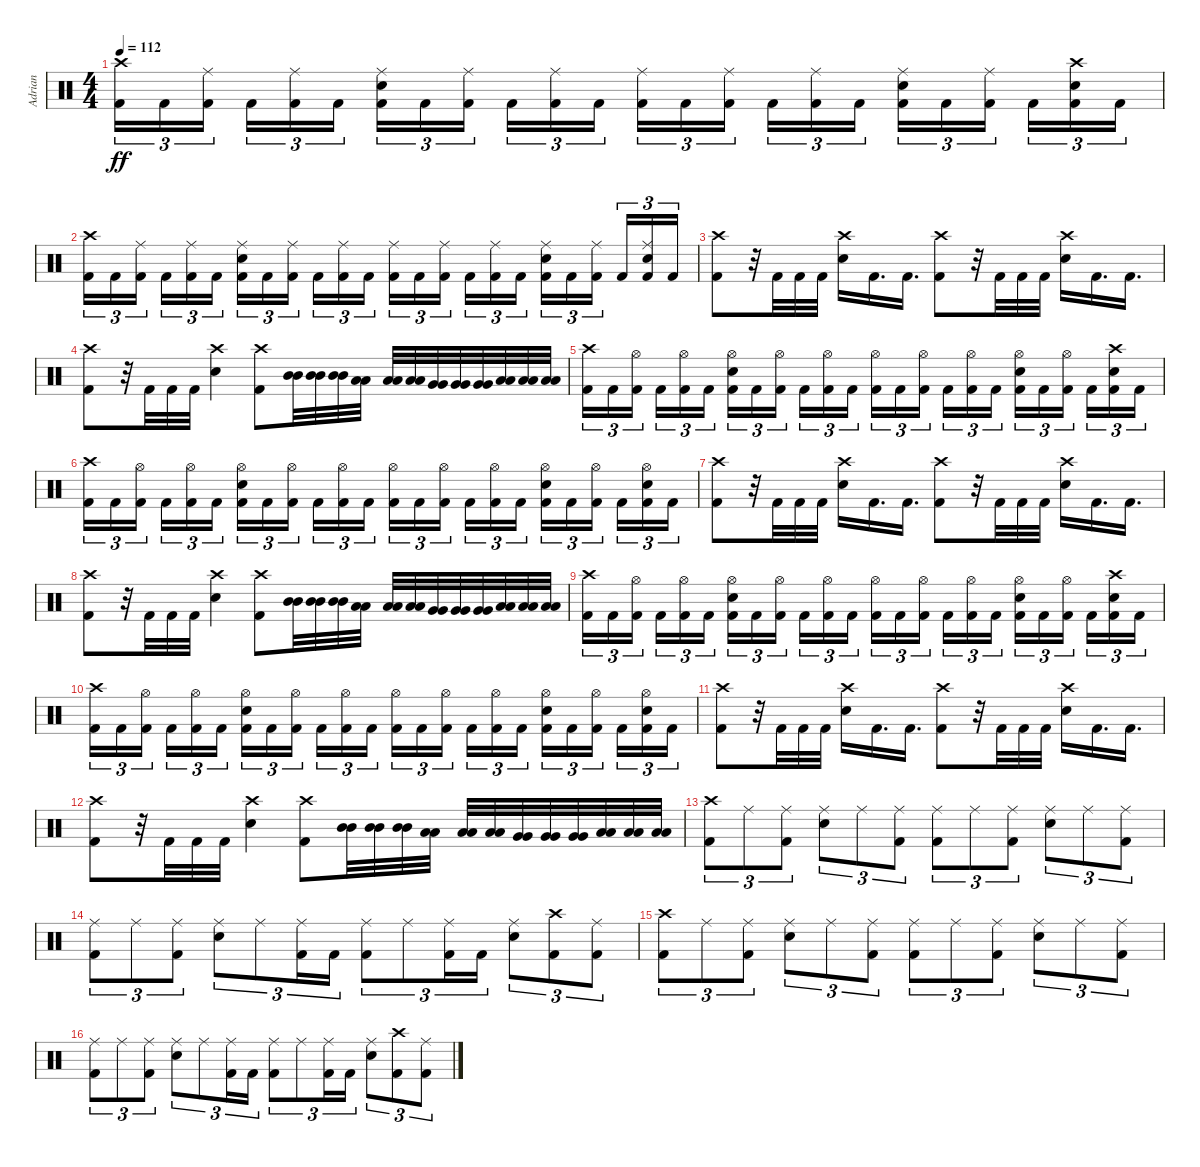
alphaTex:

\track ("Adrian" "Adrian") {instrument percussion}
\staff {score}
\articulation defaults
\ts (4 4)
\tempo 112
\clef neutral
\ks c
("Crash high (hit)" "Kick (hit) 2").16{tu (3 2) dy ff} "Kick (hit) 2".16{tu (3 2)} ("Ride (middle)" "Kick (hit) 2").16{tu (3 2) beam splitsecondary} "Kick (hit) 2".16{tu (3 2)} ("Ride (middle)" "Kick (hit) 2").16{tu (3 2)} "Kick (hit) 2".16{tu (3 2)} ("Ride (middle)" "Kick (hit) 2" "Electric Snare (hit)").16{tu (3 2)} "Kick (hit) 2".16{tu (3 2)} ("Ride (middle)" "Kick (hit) 2").16{tu (3 2) beam splitsecondary} "Kick (hit) 2".16{tu (3 2)} ("Ride (middle)" "Kick (hit) 2").16{tu (3 2)} "Kick (hit) 2".16{tu (3 2)} ("Ride (middle)" "Kick (hit) 2").16{tu (3 2)} "Kick (hit) 2".16{tu (3 2)} ("Ride (middle)" "Kick (hit) 2").16{tu (3 2) beam splitsecondary} "Kick (hit) 2".16{tu (3 2)} ("Ride (middle)" "Kick (hit) 2").16{tu (3 2)} "Kick (hit) 2".16{tu (3 2)} ("Ride (middle)" "Kick (hit) 2" "Electric Snare (hit)").16{tu (3 2)} "Kick (hit) 2".16{tu (3 2)} ("Ride (middle)" "Kick (hit) 2").16{tu (3 2) beam splitsecondary} "Kick (hit) 2".16{tu (3 2)} ("Crash high (hit)" "Kick (hit) 2" "Electric Snare (hit)").16{tu (3 2)} "Kick (hit) 2".16{tu (3 2)} |
("Crash high (hit)" "Kick (hit) 2").16{tu (3 2)} "Kick (hit) 2".16{tu (3 2)} ("Ride (middle)" "Kick (hit) 2").16{tu (3 2) beam splitsecondary} "Kick (hit) 2".16{tu (3 2)} ("Ride (middle)" "Kick (hit) 2").16{tu (3 2)} "Kick (hit) 2".16{tu (3 2)} ("Ride (middle)" "Kick (hit) 2" "Electric Snare (hit)").16{tu (3 2)} "Kick (hit) 2".16{tu (3 2)} ("Ride (middle)" "Kick (hit) 2").16{tu (3 2) beam splitsecondary} "Kick (hit) 2".16{tu (3 2)} ("Ride (middle)" "Kick (hit) 2").16{tu (3 2)} "Kick (hit) 2".16{tu (3 2)} ("Ride (middle)" "Kick (hit) 2").16{tu (3 2)} "Kick (hit) 2".16{tu (3 2)} ("Ride (middle)" "Kick (hit) 2").16{tu (3 2) beam splitsecondary} "Kick (hit) 2".16{tu (3 2)} ("Ride (middle)" "Kick (hit) 2").16{tu (3 2)} "Kick (hit) 2".16{tu (3 2)} ("Ride (middle)" "Kick (hit) 2" "Electric Snare (hit)").16{tu (3 2)} "Kick (hit) 2".16{tu (3 2)} ("Ride (middle)" "Kick (hit) 2").16{tu (3 2) beam splitsecondary} "Kick (hit) 2".16{tu (3 2)} ("Ride (middle)" "Kick (hit) 2" "Electric Snare (hit)").16{tu (3 2)} "Kick (hit) 2".16{tu (3 2)} |
("Crash high (hit)" "Kick (hit) 2").8 r.32 "Kick (hit) 2".32 "Kick (hit) 2".32 "Kick (hit) 2".32 ("Crash high (hit)" "Electric Snare (hit)").16 "Kick (hit) 2".16{d} "Kick (hit) 2".16{d} ("Crash high (hit)" "Kick (hit) 2").8 r.32 "Kick (hit) 2".32 "Kick (hit) 2".32 "Kick (hit) 2".32 ("Crash high (hit)" "Electric Snare (hit)").16 "Kick (hit) 2".16{d} "Kick (hit) 2".16{d} |
("Crash high (hit)" "Kick (hit) 2").8 r.32 "Kick (hit) 2".32 "Kick (hit) 2".32 "Kick (hit) 2".32 ("Crash high (hit)" "Electric Snare (hit)").4 ("Crash high (hit)" "Kick (hit) 2").8 ("Mid Tom (hit)" "Mid Tom (hit)").32 ("Mid Tom (hit)" "Mid Tom (hit)").32 ("Mid Tom (hit)" "Mid Tom (hit)").32 ("Low Tom (hit)" "Low Tom (hit)").32 ("Low Tom (hit)" "Low Tom (hit)").32 ("Low Tom (hit)" "Low Tom (hit)").32 ("Very Low Tom (hit)" "Very Low Tom (hit)").32 ("Very Low Tom (hit)" "Very Low Tom (hit)").32 ("Very Low Tom (hit)" "Very Low Tom (hit)").32 ("Low Floor Tom (hit)" "Low Floor Tom (hit)").32 ("Low Floor Tom (hit)" "Low Floor Tom (hit)").32 ("Low Floor Tom (hit)" "Low Floor Tom (hit)").32 |
("Crash high (hit)" "Kick (hit) 2").16{tu (3 2)} "Kick (hit) 2".16{tu (3 2)} ("Hi-Hat (open)" "Kick (hit) 2").16{tu (3 2) beam splitsecondary} "Kick (hit) 2".16{tu (3 2)} ("Hi-Hat (open)" "Kick (hit) 2").16{tu (3 2)} "Kick (hit) 2".16{tu (3 2)} ("Hi-Hat (open)" "Kick (hit) 2" "Electric Snare (hit)").16{tu (3 2)} "Kick (hit) 2".16{tu (3 2)} ("Hi-Hat (open)" "Kick (hit) 2").16{tu (3 2) beam splitsecondary} "Kick (hit) 2".16{tu (3 2)} ("Hi-Hat (open)" "Kick (hit) 2").16{tu (3 2)} "Kick (hit) 2".16{tu (3 2)} ("Hi-Hat (open)" "Kick (hit) 2").16{tu (3 2)} "Kick (hit) 2".16{tu (3 2)} ("Hi-Hat (open)" "Kick (hit) 2").16{tu (3 2) beam splitsecondary} "Kick (hit) 2".16{tu (3 2)} ("Hi-Hat (open)" "Kick (hit) 2").16{tu (3 2)} "Kick (hit) 2".16{tu (3 2)} ("Hi-Hat (open)" "Kick (hit) 2" "Electric Snare (hit)").16{tu (3 2)} "Kick (hit) 2".16{tu (3 2)} ("Hi-Hat (open)" "Kick (hit) 2").16{tu (3 2) beam splitsecondary} "Kick (hit) 2".16{tu (3 2)} ("Crash high (hit)" "Kick (hit) 2" "Electric Snare (hit)").16{tu (3 2)} "Kick (hit) 2".16{tu (3 2)} |
("Crash high (hit)" "Kick (hit) 2").16{tu (3 2)} "Kick (hit) 2".16{tu (3 2)} ("Hi-Hat (open)" "Kick (hit) 2").16{tu (3 2) beam splitsecondary} "Kick (hit) 2".16{tu (3 2)} ("Hi-Hat (open)" "Kick (hit) 2").16{tu (3 2)} "Kick (hit) 2".16{tu (3 2)} ("Hi-Hat (open)" "Kick (hit) 2" "Electric Snare (hit)").16{tu (3 2)} "Kick (hit) 2".16{tu (3 2)} ("Hi-Hat (open)" "Kick (hit) 2").16{tu (3 2) beam splitsecondary} "Kick (hit) 2".16{tu (3 2)} ("Hi-Hat (open)" "Kick (hit) 2").16{tu (3 2)} "Kick (hit) 2".16{tu (3 2)} ("Hi-Hat (open)" "Kick (hit) 2").16{tu (3 2)} "Kick (hit) 2".16{tu (3 2)} ("Hi-Hat (open)" "Kick (hit) 2").16{tu (3 2) beam splitsecondary} "Kick (hit) 2".16{tu (3 2)} ("Hi-Hat (open)" "Kick (hit) 2").16{tu (3 2)} "Kick (hit) 2".16{tu (3 2)} ("Hi-Hat (open)" "Kick (hit) 2" "Electric Snare (hit)").16{tu (3 2)} "Kick (hit) 2".16{tu (3 2)} ("Hi-Hat (open)" "Kick (hit) 2").16{tu (3 2) beam splitsecondary} "Kick (hit) 2".16{tu (3 2)} ("Hi-Hat (open)" "Kick (hit) 2" "Electric Snare (hit)").16{tu (3 2)} "Kick (hit) 2".16{tu (3 2)} |
("Crash high (hit)" "Kick (hit) 2").8 r.32 "Kick (hit) 2".32 "Kick (hit) 2".32 "Kick (hit) 2".32 ("Crash high (hit)" "Electric Snare (hit)").16 "Kick (hit) 2".16{d} "Kick (hit) 2".16{d} ("Crash high (hit)" "Kick (hit) 2").8 r.32 "Kick (hit) 2".32 "Kick (hit) 2".32 "Kick (hit) 2".32 ("Crash high (hit)" "Electric Snare (hit)").16 "Kick (hit) 2".16{d} "Kick (hit) 2".16{d} |
("Crash high (hit)" "Kick (hit) 2").8 r.32 "Kick (hit) 2".32 "Kick (hit) 2".32 "Kick (hit) 2".32 ("Crash high (hit)" "Electric Snare (hit)").4 ("Crash high (hit)" "Kick (hit) 2").8 ("Mid Tom (hit)" "Mid Tom (hit)").32 ("Mid Tom (hit)" "Mid Tom (hit)").32 ("Mid Tom (hit)" "Mid Tom (hit)").32 ("Low Tom (hit)" "Low Tom (hit)").32 ("Low Tom (hit)" "Low Tom (hit)").32 ("Low Tom (hit)" "Low Tom (hit)").32 ("Very Low Tom (hit)" "Very Low Tom (hit)").32 ("Very Low Tom (hit)" "Very Low Tom (hit)").32 ("Very Low Tom (hit)" "Very Low Tom (hit)").32 ("Low Floor Tom (hit)" "Low Floor Tom (hit)").32 ("Low Floor Tom (hit)" "Low Floor Tom (hit)").32 ("Low Floor Tom (hit)" "Low Floor Tom (hit)").32 |
("Crash high (hit)" "Kick (hit) 2").16{tu (3 2)} "Kick (hit) 2".16{tu (3 2)} ("Hi-Hat (open)" "Kick (hit) 2").16{tu (3 2) beam splitsecondary} "Kick (hit) 2".16{tu (3 2)} ("Hi-Hat (open)" "Kick (hit) 2").16{tu (3 2)} "Kick (hit) 2".16{tu (3 2)} ("Hi-Hat (open)" "Kick (hit) 2" "Electric Snare (hit)").16{tu (3 2)} "Kick (hit) 2".16{tu (3 2)} ("Hi-Hat (open)" "Kick (hit) 2").16{tu (3 2) beam splitsecondary} "Kick (hit) 2".16{tu (3 2)} ("Hi-Hat (open)" "Kick (hit) 2").16{tu (3 2)} "Kick (hit) 2".16{tu (3 2)} ("Hi-Hat (open)" "Kick (hit) 2").16{tu (3 2)} "Kick (hit) 2".16{tu (3 2)} ("Hi-Hat (open)" "Kick (hit) 2").16{tu (3 2) beam splitsecondary} "Kick (hit) 2".16{tu (3 2)} ("Hi-Hat (open)" "Kick (hit) 2").16{tu (3 2)} "Kick (hit) 2".16{tu (3 2)} ("Hi-Hat (open)" "Kick (hit) 2" "Electric Snare (hit)").16{tu (3 2)} "Kick (hit) 2".16{tu (3 2)} ("Hi-Hat (open)" "Kick (hit) 2").16{tu (3 2) beam splitsecondary} "Kick (hit) 2".16{tu (3 2)} ("Crash high (hit)" "Kick (hit) 2" "Electric Snare (hit)").16{tu (3 2)} "Kick (hit) 2".16{tu (3 2)} |
("Crash high (hit)" "Kick (hit) 2").16{tu (3 2)} "Kick (hit) 2".16{tu (3 2)} ("Hi-Hat (open)" "Kick (hit) 2").16{tu (3 2) beam splitsecondary} "Kick (hit) 2".16{tu (3 2)} ("Hi-Hat (open)" "Kick (hit) 2").16{tu (3 2)} "Kick (hit) 2".16{tu (3 2)} ("Hi-Hat (open)" "Kick (hit) 2" "Electric Snare (hit)").16{tu (3 2)} "Kick (hit) 2".16{tu (3 2)} ("Hi-Hat (open)" "Kick (hit) 2").16{tu (3 2) beam splitsecondary} "Kick (hit) 2".16{tu (3 2)} ("Hi-Hat (open)" "Kick (hit) 2").16{tu (3 2)} "Kick (hit) 2".16{tu (3 2)} ("Hi-Hat (open)" "Kick (hit) 2").16{tu (3 2)} "Kick (hit) 2".16{tu (3 2)} ("Hi-Hat (open)" "Kick (hit) 2").16{tu (3 2) beam splitsecondary} "Kick (hit) 2".16{tu (3 2)} ("Hi-Hat (open)" "Kick (hit) 2").16{tu (3 2)} "Kick (hit) 2".16{tu (3 2)} ("Hi-Hat (open)" "Kick (hit) 2" "Electric Snare (hit)").16{tu (3 2)} "Kick (hit) 2".16{tu (3 2)} ("Hi-Hat (open)" "Kick (hit) 2").16{tu (3 2) beam splitsecondary} "Kick (hit) 2".16{tu (3 2)} ("Hi-Hat (open)" "Kick (hit) 2" "Electric Snare (hit)").16{tu (3 2)} "Kick (hit) 2".16{tu (3 2)} |
("Crash high (hit)" "Kick (hit) 2").8 r.32 "Kick (hit) 2".32 "Kick (hit) 2".32 "Kick (hit) 2".32 ("Crash high (hit)" "Electric Snare (hit)").16 "Kick (hit) 2".16{d} "Kick (hit) 2".16{d} ("Crash high (hit)" "Kick (hit) 2").8 r.32 "Kick (hit) 2".32 "Kick (hit) 2".32 "Kick (hit) 2".32 ("Crash high (hit)" "Electric Snare (hit)").16 "Kick (hit) 2".16{d} "Kick (hit) 2".16{d} |
("Crash high (hit)" "Kick (hit) 2").8 r.32 "Kick (hit) 2".32 "Kick (hit) 2".32 "Kick (hit) 2".32 ("Crash high (hit)" "Electric Snare (hit)").4 ("Crash high (hit)" "Kick (hit) 2").8 ("Mid Tom (hit)" "Mid Tom (hit)").32 ("Mid Tom (hit)" "Mid Tom (hit)").32 ("Mid Tom (hit)" "Mid Tom (hit)").32 ("Low Tom (hit)" "Low Tom (hit)").32 ("Low Tom (hit)" "Low Tom (hit)").32 ("Low Tom (hit)" "Low Tom (hit)").32 ("Very Low Tom (hit)" "Very Low Tom (hit)").32 ("Very Low Tom (hit)" "Very Low Tom (hit)").32 ("Very Low Tom (hit)" "Very Low Tom (hit)").32 ("Low Floor Tom (hit)" "Low Floor Tom (hit)").32 ("Low Floor Tom (hit)" "Low Floor Tom (hit)").32 ("Low Floor Tom (hit)" "Low Floor Tom (hit)").32 |
("Crash high (hit)" "Kick (hit) 2").8{tu (3 2)} "Ride (middle)".8{tu (3 2)} ("Ride (middle)" "Kick (hit) 2").8{tu (3 2)} ("Ride (middle)" "Electric Snare (hit)").8{tu (3 2)} "Ride (middle)".8{tu (3 2)} ("Ride (middle)" "Kick (hit) 2").8{tu (3 2)} ("Ride (middle)" "Kick (hit) 2").8{tu (3 2)} "Ride (middle)".8{tu (3 2)} ("Ride (middle)" "Kick (hit) 2").8{tu (3 2)} ("Ride (middle)" "Electric Snare (hit)").8{tu (3 2)} "Ride (middle)".8{tu (3 2)} ("Ride (middle)" "Kick (hit) 2").8{tu (3 2)} |
("Ride (middle)" "Kick (hit) 2").8{tu (3 2)} "Ride (middle)".8{tu (3 2)} ("Ride (middle)" "Kick (hit) 2").8{tu (3 2)} ("Ride (middle)" "Electric Snare (hit)").8{tu (3 2)} "Ride (middle)".8{tu (3 2)} ("Ride (middle)" "Kick (hit) 2").16{tu (3 2)} "Kick (hit) 2".16{tu (3 2)} ("Ride (middle)" "Kick (hit) 2").8{tu (3 2)} "Ride (middle)".8{tu (3 2)} ("Ride (middle)" "Kick (hit) 2").16{tu (3 2)} "Kick (hit) 2".16{tu (3 2)} ("Ride (middle)" "Electric Snare (hit)").8{tu (3 2)} ("Crash high (hit)" "Kick (hit) 2").8{tu (3 2)} ("Ride (middle)" "Kick (hit) 2").8{tu (3 2)} |
("Crash high (hit)" "Kick (hit) 2").8{tu (3 2)} "Ride (middle)".8{tu (3 2)} ("Ride (middle)" "Kick (hit) 2").8{tu (3 2)} ("Ride (middle)" "Electric Snare (hit)").8{tu (3 2)} "Ride (middle)".8{tu (3 2)} ("Ride (middle)" "Kick (hit) 2").8{tu (3 2)} ("Ride (middle)" "Kick (hit) 2").8{tu (3 2)} "Ride (middle)".8{tu (3 2)} ("Ride (middle)" "Kick (hit) 2").8{tu (3 2)} ("Ride (middle)" "Electric Snare (hit)").8{tu (3 2)} "Ride (middle)".8{tu (3 2)} ("Ride (middle)" "Kick (hit) 2").8{tu (3 2)} |
("Ride (middle)" "Kick (hit) 2").8{tu (3 2)} "Ride (middle)".8{tu (3 2)} ("Ride (middle)" "Kick (hit) 2").8{tu (3 2)} ("Ride (middle)" "Electric Snare (hit)").8{tu (3 2)} "Ride (middle)".8{tu (3 2)} ("Ride (middle)" "Kick (hit) 2").16{tu (3 2)} "Kick (hit) 2".16{tu (3 2)} ("Ride (middle)" "Kick (hit) 2").8{tu (3 2)} "Ride (middle)".8{tu (3 2)} ("Ride (middle)" "Kick (hit) 2").16{tu (3 2)} "Kick (hit) 2".16{tu (3 2)} ("Ride (middle)" "Electric Snare (hit)").8{tu (3 2)} ("Crash high (hit)" "Kick (hit) 2").8{tu (3 2)} ("Ride (middle)" "Kick (hit) 2").8{tu (3 2)}
